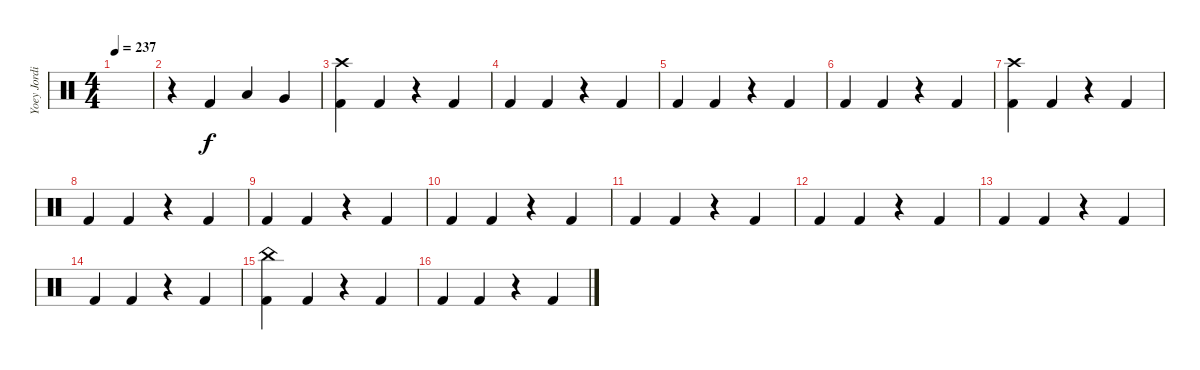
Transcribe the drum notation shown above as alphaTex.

\track ("Yoey Jordison" "Yoey Jordi") {instrument percussion}
\staff {score}
\articulation defaults
\ts (4 4)
\tempo 237
\clef neutral
\ks c
|
r.4 "Kick (hit) 2".4 "Low Floor Tom (hit)".4 "Very Low Tom (hit)".4 |
("Crash high (hit)" "Kick (hit) 2").4 "Kick (hit) 2".4 r.4 "Kick (hit) 2".4 |
"Kick (hit) 2".4 "Kick (hit) 2".4 r.4 "Kick (hit) 2".4 |
"Kick (hit) 2".4 "Kick (hit) 2".4 r.4 "Kick (hit) 2".4 |
"Kick (hit) 2".4 "Kick (hit) 2".4 r.4 "Kick (hit) 2".4 |
("Crash high (hit)" "Kick (hit) 2").4 "Kick (hit) 2".4 r.4 "Kick (hit) 2".4 |
"Kick (hit) 2".4 "Kick (hit) 2".4 r.4 "Kick (hit) 2".4 |
"Kick (hit) 2".4 "Kick (hit) 2".4 r.4 "Kick (hit) 2".4 |
"Kick (hit) 2".4 "Kick (hit) 2".4 r.4 "Kick (hit) 2".4 |
"Kick (hit) 2".4 "Kick (hit) 2".4 r.4 "Kick (hit) 2".4 |
"Kick (hit) 2".4 "Kick (hit) 2".4 r.4 "Kick (hit) 2".4 |
"Kick (hit) 2".4 "Kick (hit) 2".4 r.4 "Kick (hit) 2".4 |
"Kick (hit) 2".4 "Kick (hit) 2".4 r.4 "Kick (hit) 2".4 |
("China (hit)" "Kick (hit) 2").4 "Kick (hit) 2".4 r.4 "Kick (hit) 2".4 |
"Kick (hit) 2".4 "Kick (hit) 2".4 r.4 "Kick (hit) 2".4
